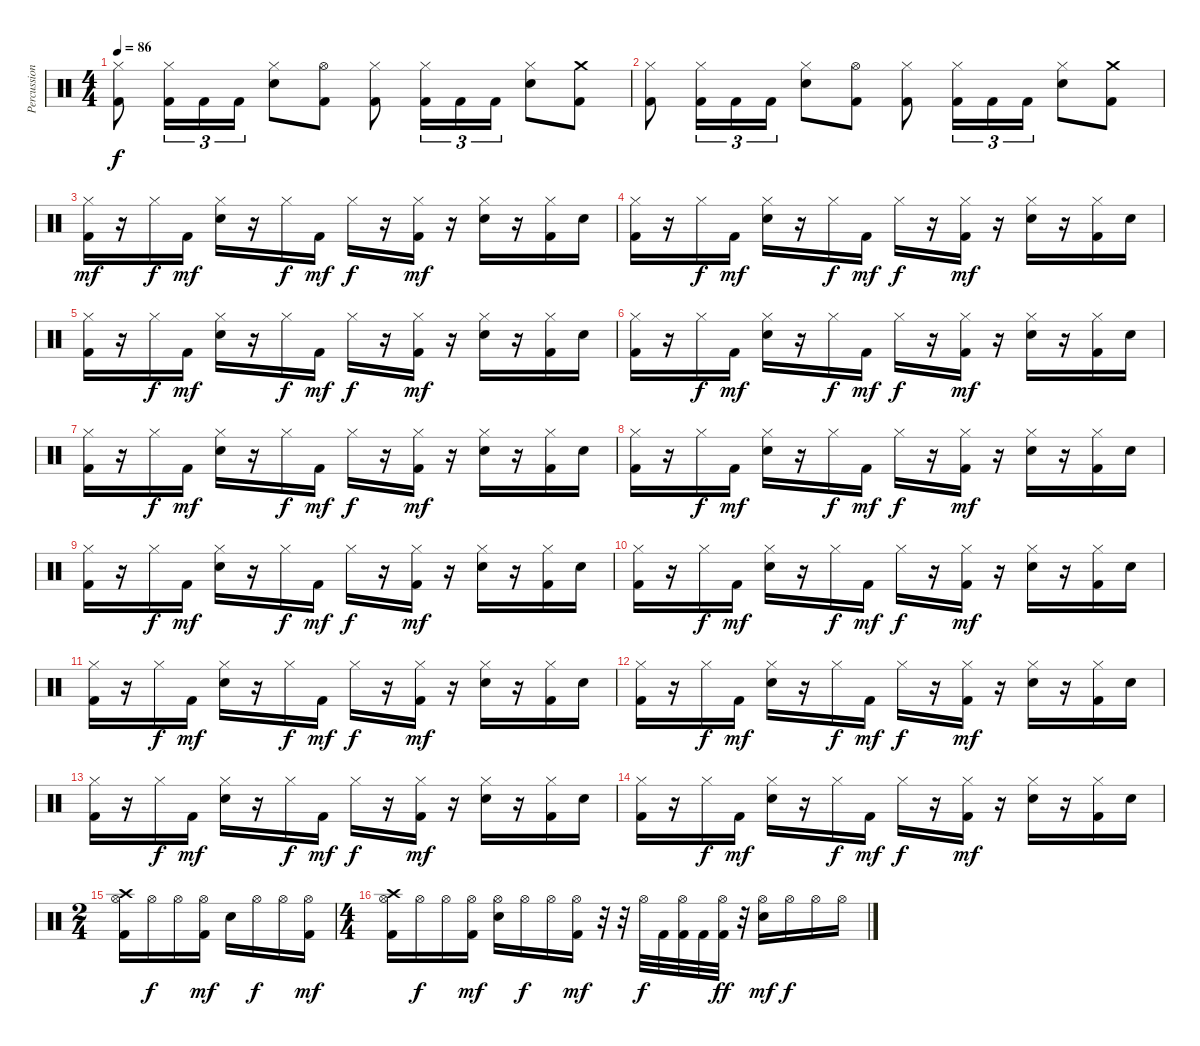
\track ("Percussion" "Percussion") {instrument percussion}
\staff {score}
\articulation defaults
\ts (4 4)
\tempo 86
\clef neutral
\ks c
("Kick (hit) 2" "Hi-Hat (closed)").8{dy f} ("Kick (hit) 2" "Hi-Hat (closed)").16{tu (3 2)} "Kick (hit) 2".16{tu (3 2)} "Kick (hit) 2".16{tu (3 2)} ("Electric Snare (hit)" "Hi-Hat (closed)").8 ("Kick (hit) 2" "Hi-Hat (open)").8 ("Kick (hit) 2" "Hi-Hat (closed)").8 ("Kick (hit) 2" "Hi-Hat (closed)").16{tu (3 2)} "Kick (hit) 2".16{tu (3 2)} "Kick (hit) 2".16{tu (3 2)} ("Electric Snare (hit)" "Hi-Hat (closed)").8 ("Kick (hit) 2" "Crash medium (hit)").8 |
("Kick (hit) 2" "Hi-Hat (closed)").8 ("Kick (hit) 2" "Hi-Hat (closed)").16{tu (3 2)} "Kick (hit) 2".16{tu (3 2)} "Kick (hit) 2".16{tu (3 2)} ("Electric Snare (hit)" "Hi-Hat (closed)").8 ("Kick (hit) 2" "Hi-Hat (open)").8 ("Kick (hit) 2" "Hi-Hat (closed)").8 ("Kick (hit) 2" "Hi-Hat (closed)").16{tu (3 2)} "Kick (hit) 2".16{tu (3 2)} "Kick (hit) 2".16{tu (3 2)} ("Electric Snare (hit)" "Hi-Hat (closed)").8 ("Kick (hit) 2" "Crash medium (hit)").8 |
("Hi-Hat (closed)" "Kick (hit) 2").16{dy mf} r.16 "Hi-Hat (closed)".16{dy f} "Kick (hit) 2".16{dy mf} ("Hi-Hat (closed)" "Electric Snare (hit)").16 r.16 "Hi-Hat (closed)".16{dy f} "Kick (hit) 2".16{dy mf} "Hi-Hat (closed)".16{dy f} r.16 ("Hi-Hat (closed)" "Kick (hit) 2").16{dy mf} r.16 ("Hi-Hat (closed)" "Electric Snare (hit)").16 r.16 ("Hi-Hat (closed)" "Kick (hit) 2").16 "Electric Snare (hit)".16 |
("Hi-Hat (closed)" "Kick (hit) 2").16 r.16 "Hi-Hat (closed)".16{dy f} "Kick (hit) 2".16{dy mf} ("Hi-Hat (closed)" "Electric Snare (hit)").16 r.16 "Hi-Hat (closed)".16{dy f} "Kick (hit) 2".16{dy mf} "Hi-Hat (closed)".16{dy f} r.16 ("Hi-Hat (closed)" "Kick (hit) 2").16{dy mf} r.16 ("Hi-Hat (closed)" "Electric Snare (hit)").16 r.16 ("Hi-Hat (closed)" "Kick (hit) 2").16 "Electric Snare (hit)".16 |
("Hi-Hat (closed)" "Kick (hit) 2").16 r.16 "Hi-Hat (closed)".16{dy f} "Kick (hit) 2".16{dy mf} ("Hi-Hat (closed)" "Electric Snare (hit)").16 r.16 "Hi-Hat (closed)".16{dy f} "Kick (hit) 2".16{dy mf} "Hi-Hat (closed)".16{dy f} r.16 ("Hi-Hat (closed)" "Kick (hit) 2").16{dy mf} r.16 ("Hi-Hat (closed)" "Electric Snare (hit)").16 r.16 ("Hi-Hat (closed)" "Kick (hit) 2").16 "Electric Snare (hit)".16 |
("Hi-Hat (closed)" "Kick (hit) 2").16 r.16 "Hi-Hat (closed)".16{dy f} "Kick (hit) 2".16{dy mf} ("Hi-Hat (closed)" "Electric Snare (hit)").16 r.16 "Hi-Hat (closed)".16{dy f} "Kick (hit) 2".16{dy mf} "Hi-Hat (closed)".16{dy f} r.16 ("Hi-Hat (closed)" "Kick (hit) 2").16{dy mf} r.16 ("Hi-Hat (closed)" "Electric Snare (hit)").16 r.16 ("Hi-Hat (closed)" "Kick (hit) 2").16 "Electric Snare (hit)".16 |
("Hi-Hat (closed)" "Kick (hit) 2").16 r.16 "Hi-Hat (closed)".16{dy f} "Kick (hit) 2".16{dy mf} ("Hi-Hat (closed)" "Electric Snare (hit)").16 r.16 "Hi-Hat (closed)".16{dy f} "Kick (hit) 2".16{dy mf} "Hi-Hat (closed)".16{dy f} r.16 ("Hi-Hat (closed)" "Kick (hit) 2").16{dy mf} r.16 ("Hi-Hat (closed)" "Electric Snare (hit)").16 r.16 ("Hi-Hat (closed)" "Kick (hit) 2").16 "Electric Snare (hit)".16 |
("Hi-Hat (closed)" "Kick (hit) 2").16 r.16 "Hi-Hat (closed)".16{dy f} "Kick (hit) 2".16{dy mf} ("Hi-Hat (closed)" "Electric Snare (hit)").16 r.16 "Hi-Hat (closed)".16{dy f} "Kick (hit) 2".16{dy mf} "Hi-Hat (closed)".16{dy f} r.16 ("Hi-Hat (closed)" "Kick (hit) 2").16{dy mf} r.16 ("Hi-Hat (closed)" "Electric Snare (hit)").16 r.16 ("Hi-Hat (closed)" "Kick (hit) 2").16 "Electric Snare (hit)".16 |
("Hi-Hat (closed)" "Kick (hit) 2").16 r.16 "Hi-Hat (closed)".16{dy f} "Kick (hit) 2".16{dy mf} ("Hi-Hat (closed)" "Electric Snare (hit)").16 r.16 "Hi-Hat (closed)".16{dy f} "Kick (hit) 2".16{dy mf} "Hi-Hat (closed)".16{dy f} r.16 ("Hi-Hat (closed)" "Kick (hit) 2").16{dy mf} r.16 ("Hi-Hat (closed)" "Electric Snare (hit)").16 r.16 ("Hi-Hat (closed)" "Kick (hit) 2").16 "Electric Snare (hit)".16 |
("Hi-Hat (closed)" "Kick (hit) 2").16 r.16 "Hi-Hat (closed)".16{dy f} "Kick (hit) 2".16{dy mf} ("Hi-Hat (closed)" "Electric Snare (hit)").16 r.16 "Hi-Hat (closed)".16{dy f} "Kick (hit) 2".16{dy mf} "Hi-Hat (closed)".16{dy f} r.16 ("Hi-Hat (closed)" "Kick (hit) 2").16{dy mf} r.16 ("Hi-Hat (closed)" "Electric Snare (hit)").16 r.16 ("Hi-Hat (closed)" "Kick (hit) 2").16 "Electric Snare (hit)".16 |
("Hi-Hat (closed)" "Kick (hit) 2").16 r.16 "Hi-Hat (closed)".16{dy f} "Kick (hit) 2".16{dy mf} ("Hi-Hat (closed)" "Electric Snare (hit)").16 r.16 "Hi-Hat (closed)".16{dy f} "Kick (hit) 2".16{dy mf} "Hi-Hat (closed)".16{dy f} r.16 ("Hi-Hat (closed)" "Kick (hit) 2").16{dy mf} r.16 ("Hi-Hat (closed)" "Electric Snare (hit)").16 r.16 ("Hi-Hat (closed)" "Kick (hit) 2").16 "Electric Snare (hit)".16 |
("Hi-Hat (closed)" "Kick (hit) 2").16 r.16 "Hi-Hat (closed)".16{dy f} "Kick (hit) 2".16{dy mf} ("Hi-Hat (closed)" "Electric Snare (hit)").16 r.16 "Hi-Hat (closed)".16{dy f} "Kick (hit) 2".16{dy mf} "Hi-Hat (closed)".16{dy f} r.16 ("Hi-Hat (closed)" "Kick (hit) 2").16{dy mf} r.16 ("Hi-Hat (closed)" "Electric Snare (hit)").16 r.16 ("Hi-Hat (closed)" "Kick (hit) 2").16 "Electric Snare (hit)".16 |
("Hi-Hat (closed)" "Kick (hit) 2").16 r.16 "Hi-Hat (closed)".16{dy f} "Kick (hit) 2".16{dy mf} ("Hi-Hat (closed)" "Electric Snare (hit)").16 r.16 "Hi-Hat (closed)".16{dy f} "Kick (hit) 2".16{dy mf} "Hi-Hat (closed)".16{dy f} r.16 ("Hi-Hat (closed)" "Kick (hit) 2").16{dy mf} r.16 ("Hi-Hat (closed)" "Electric Snare (hit)").16 r.16 ("Hi-Hat (closed)" "Kick (hit) 2").16 "Electric Snare (hit)".16 |
("Hi-Hat (closed)" "Kick (hit) 2").16 r.16 "Hi-Hat (closed)".16{dy f} "Kick (hit) 2".16{dy mf} ("Hi-Hat (closed)" "Electric Snare (hit)").16 r.16 "Hi-Hat (closed)".16{dy f} "Kick (hit) 2".16{dy mf} "Hi-Hat (closed)".16{dy f} r.16 ("Hi-Hat (closed)" "Kick (hit) 2").16{dy mf} r.16 ("Hi-Hat (closed)" "Electric Snare (hit)").16 r.16 ("Hi-Hat (closed)" "Kick (hit) 2").16 "Electric Snare (hit)".16 |
\ts (2 4)
("Crash high (hit)" "Hi-Hat (open)" "Kick (hit) 2").16 "Hi-Hat (open)".16{dy f} "Hi-Hat (open)".16 ("Hi-Hat (open)" "Kick (hit) 2").16{dy mf} "Electric Snare (hit)".16 "Hi-Hat (open)".16{dy f} "Hi-Hat (open)".16 ("Hi-Hat (open)" "Kick (hit) 2").16{dy mf} |
\ts (4 4)
("Crash high (hit)" "Hi-Hat (open)" "Kick (hit) 2").16 "Hi-Hat (open)".16{dy f} "Hi-Hat (open)".16 ("Hi-Hat (open)" "Kick (hit) 2").16{dy mf} ("Hi-Hat (open)" "Electric Snare (hit)").16 "Hi-Hat (open)".16{dy f} "Hi-Hat (open)".16 ("Hi-Hat (open)" "Kick (hit) 2").16{dy mf} r.32 r.32 "Hi-Hat (open)".32{dy f} "Kick (hit) 2".32 ("Hi-Hat (open)" "Kick (hit) 2").32 "Kick (hit) 2".32 ("Hi-Hat (open)" "Kick (hit) 2").32{dy ff} r.32 ("Hi-Hat (open)" "Electric Snare (hit)").16{dy mf} "Hi-Hat (open)".16{dy f} "Hi-Hat (open)".16 "Hi-Hat (open)".16
